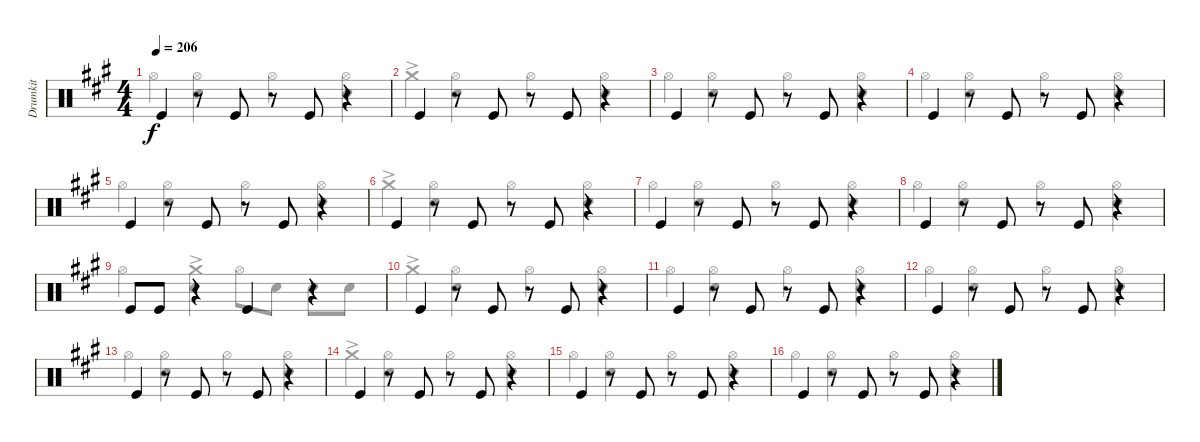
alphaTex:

\track ("Drumkit" "Drumkit") {instrument percussion}
\staff {score}
\articulation defaults
\voice
\ts (4 4)
\tempo 206
\clef neutral
\ks a "Kick (hit)".4{dy f}
r.8 "Kick (hit)".8 r.8 "Kick (hit)".8 r.4 |
"Kick (hit)".4 r.8 "Kick (hit)".8 r.8 "Kick (hit)".8 r.4 |
"Kick (hit)".4 r.8 "Kick (hit)".8 r.8 "Kick (hit)".8 r.4 |
"Kick (hit)".4 r.8 "Kick (hit)".8 r.8 "Kick (hit)".8 r.4 |
"Kick (hit)".4 r.8 "Kick (hit)".8 r.8 "Kick (hit)".8 r.4 |
"Kick (hit)".4 r.8 "Kick (hit)".8 r.8 "Kick (hit)".8 r.4 |
"Kick (hit)".4 r.8 "Kick (hit)".8 r.8 "Kick (hit)".8 r.4 |
"Kick (hit)".4 r.8 "Kick (hit)".8 r.8 "Kick (hit)".8 r.4 |
"Kick (hit)".8 "Kick (hit)".8 r.4 "Kick (hit)".4 r.4 |
"Kick (hit)".4 r.8 "Kick (hit)".8 r.8 "Kick (hit)".8 r.4 |
"Kick (hit)".4 r.8 "Kick (hit)".8 r.8 "Kick (hit)".8 r.4 |
"Kick (hit)".4 r.8 "Kick (hit)".8 r.8 "Kick (hit)".8 r.4 |
"Kick (hit)".4 r.8 "Kick (hit)".8 r.8 "Kick (hit)".8 r.4 |
"Kick (hit)".4 r.8 "Kick (hit)".8 r.8 "Kick (hit)".8 r.4 |
"Kick (hit)".4 r.8 "Kick (hit)".8 r.8 "Kick (hit)".8 r.4 |
"Kick (hit)".4 r.8 "Kick (hit)".8 r.8 "Kick (hit)".8 r.4
\voice
\clef neutral
\ottava regular
\simile none
\ks a "Hi-Hat (open)".4{dy f}
("Hi-Hat (open)" "Snare (hit) 2").4 "Hi-Hat (open)".4 ("Hi-Hat (open)" "Snare (hit) 2").4 |
"Crash medium (hit)"{ac}.4 ("Hi-Hat (open)" "Snare (hit) 2").4 "Hi-Hat (open)".4 ("Hi-Hat (open)" "Snare (hit) 2").4 |
"Hi-Hat (open)".4 ("Hi-Hat (open)" "Snare (hit) 2").4 "Hi-Hat (open)".4 ("Hi-Hat (open)" "Snare (hit) 2").4 |
"Hi-Hat (open)".4 ("Hi-Hat (open)" "Snare (hit) 2").4 "Hi-Hat (open)".4 ("Hi-Hat (open)" "Snare (hit) 2").4 |
"Hi-Hat (open)".4 ("Hi-Hat (open)" "Snare (hit) 2").4 "Hi-Hat (open)".4 ("Hi-Hat (open)" "Snare (hit) 2").4 |
"Crash medium (hit)"{ac}.4 ("Hi-Hat (open)" "Snare (hit) 2").4 "Hi-Hat (open)".4 ("Hi-Hat (open)" "Snare (hit) 2").4 |
"Hi-Hat (open)".4 ("Hi-Hat (open)" "Snare (hit) 2").4 "Hi-Hat (open)".4 ("Hi-Hat (open)" "Snare (hit) 2").4 |
"Hi-Hat (open)".4 ("Snare (hit) 2" "Hi-Hat (open)").4 "Hi-Hat (open)".4 ("Snare (hit) 2" "Hi-Hat (open)").4 |
"Hi-Hat (open)".4 ("Crash medium (hit)"{ac} "Snare (hit) 2").4 "Hi-Hat (open)".8 "Snare (hit) 2".8 "Snare (hit) 2".8 "Snare (hit) 2".8 |
"Crash medium (hit)"{ac}.4 ("Hi-Hat (open)" "Snare (hit) 2").4 "Hi-Hat (open)".4 ("Hi-Hat (open)" "Snare (hit) 2").4 |
"Hi-Hat (open)".4 ("Hi-Hat (open)" "Snare (hit) 2").4 "Hi-Hat (open)".4 ("Hi-Hat (open)" "Snare (hit) 2").4 |
"Hi-Hat (open)".4 ("Hi-Hat (open)" "Snare (hit) 2").4 "Hi-Hat (open)".4 ("Hi-Hat (open)" "Snare (hit) 2").4 |
"Hi-Hat (open)".4 ("Hi-Hat (open)" "Snare (hit) 2").4 "Hi-Hat (open)".4 ("Hi-Hat (open)" "Snare (hit) 2").4 |
"Crash medium (hit)"{ac}.4 ("Hi-Hat (open)" "Snare (hit) 2").4 "Hi-Hat (open)".4 ("Hi-Hat (open)" "Snare (hit) 2").4 |
"Hi-Hat (open)".4 ("Hi-Hat (open)" "Snare (hit) 2").4 "Hi-Hat (open)".4 ("Hi-Hat (open)" "Snare (hit) 2").4 |
"Hi-Hat (open)".4 ("Hi-Hat (open)" "Snare (hit) 2").4 "Hi-Hat (open)".4 ("Hi-Hat (open)" "Snare (hit) 2").4
